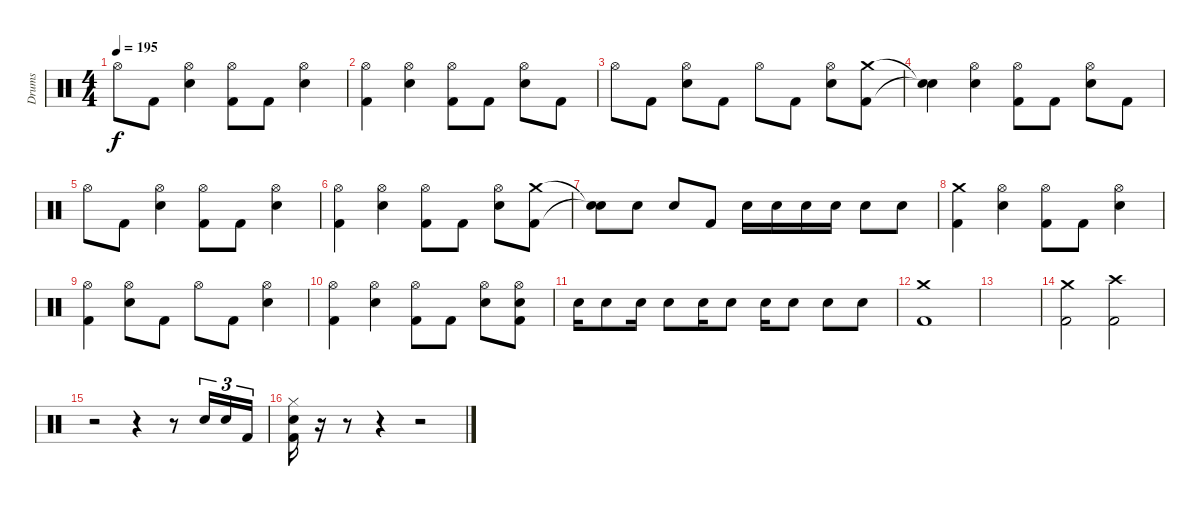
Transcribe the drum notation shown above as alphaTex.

\track ("Drums" "Drums") {instrument percussion}
\staff {score}
\articulation defaults
\ts (4 4)
\tempo 195
\clef neutral
\ks c "Hi-Hat (open)".8{dy f} "Kick (hit) 2".8
("Hi-Hat (open)" "Electric Snare (hit)").4 ("Hi-Hat (open)" "Kick (hit) 2").8 "Kick (hit) 2".8 ("Hi-Hat (open)" "Electric Snare (hit)").4 |
("Hi-Hat (open)" "Kick (hit) 2").4 ("Hi-Hat (open)" "Electric Snare (hit)").4 ("Hi-Hat (open)" "Kick (hit) 2").8 "Kick (hit) 2".8 ("Hi-Hat (open)" "Electric Snare (hit)").8 "Kick (hit) 2".8 |
"Hi-Hat (open)".8 "Kick (hit) 2".8 ("Hi-Hat (open)" "Electric Snare (hit)").8 "Kick (hit) 2".8 "Hi-Hat (open)".8 "Kick (hit) 2".8 ("Hi-Hat (open)" "Electric Snare (hit)").8 ("Crash medium (hit)" "Kick (hit) 2").8 |
("Snare (hit)"{t} "Snare (hit)"{t}).4 ("Hi-Hat (open)" "Electric Snare (hit)").4 ("Hi-Hat (open)" "Kick (hit) 2").8 "Kick (hit) 2".8 ("Hi-Hat (open)" "Electric Snare (hit)").8 "Kick (hit) 2".8 |
"Hi-Hat (open)".8 "Kick (hit) 2".8 ("Hi-Hat (open)" "Electric Snare (hit)").4 ("Hi-Hat (open)" "Kick (hit) 2").8 "Kick (hit) 2".8 ("Hi-Hat (open)" "Electric Snare (hit)").4 |
("Hi-Hat (open)" "Kick (hit) 2").4 ("Hi-Hat (open)" "Electric Snare (hit)").4 ("Hi-Hat (open)" "Kick (hit) 2").8 "Kick (hit) 2".8 ("Hi-Hat (open)" "Electric Snare (hit)").8 ("Crash medium (hit)" "Kick (hit) 2").8 |
("Snare (hit)"{t} "Snare (hit)"{t}).8 "Electric Snare (hit)".8 "Electric Snare (hit)".8 "Kick (hit) 2".8 "Electric Snare (hit)".16 "Electric Snare (hit)".16 "Electric Snare (hit)".16 "Electric Snare (hit)".16 "Electric Snare (hit)".8 "Electric Snare (hit)".8 |
\section ("" "")
("Crash medium (hit)" "Kick (hit) 2").4 ("Hi-Hat (open)" "Electric Snare (hit)").4 ("Hi-Hat (open)" "Kick (hit) 2").8 "Kick (hit) 2".8 ("Hi-Hat (open)" "Electric Snare (hit)").4 |
("Hi-Hat (open)" "Kick (hit) 2").4 ("Hi-Hat (open)" "Electric Snare (hit)").8 "Kick (hit) 2".8 "Hi-Hat (open)".8 "Kick (hit) 2".8 ("Hi-Hat (open)" "Electric Snare (hit)").4 |
("Hi-Hat (open)" "Kick (hit) 2").4 ("Hi-Hat (open)" "Electric Snare (hit)").4 ("Hi-Hat (open)" "Kick (hit) 2").8 "Kick (hit) 2".8 ("Hi-Hat (open)" "Electric Snare (hit)").8 ("Hi-Hat (open)" "Electric Snare (hit)" "Kick (hit) 2").8 |
"Electric Snare (hit)".16 "Electric Snare (hit)".8 "Electric Snare (hit)".16 "Electric Snare (hit)".8 "Electric Snare (hit)".16 "Electric Snare (hit)".8 "Electric Snare (hit)".16 "Electric Snare (hit)".8 "Electric Snare (hit)".8 "Electric Snare (hit)".8 |
\section ("" "")
("Crash medium (hit)" "Kick (hit) 2").1 |
|
("Crash medium (hit)" "Kick (hit) 2").2 ("Crash high (hit)" "Kick (hit) 2").2 |
r.2 r.4 r.8 "Electric Snare (hit)".16{tu (3 2)} "Electric Snare (hit)".16{tu (3 2)} "Kick (hit) 2".16{tu (3 2)} |
("Hi-Hat (closed)" "Electric Snare (hit)" "Kick (hit) 2").16 r.16 r.8 r.4 r.2
